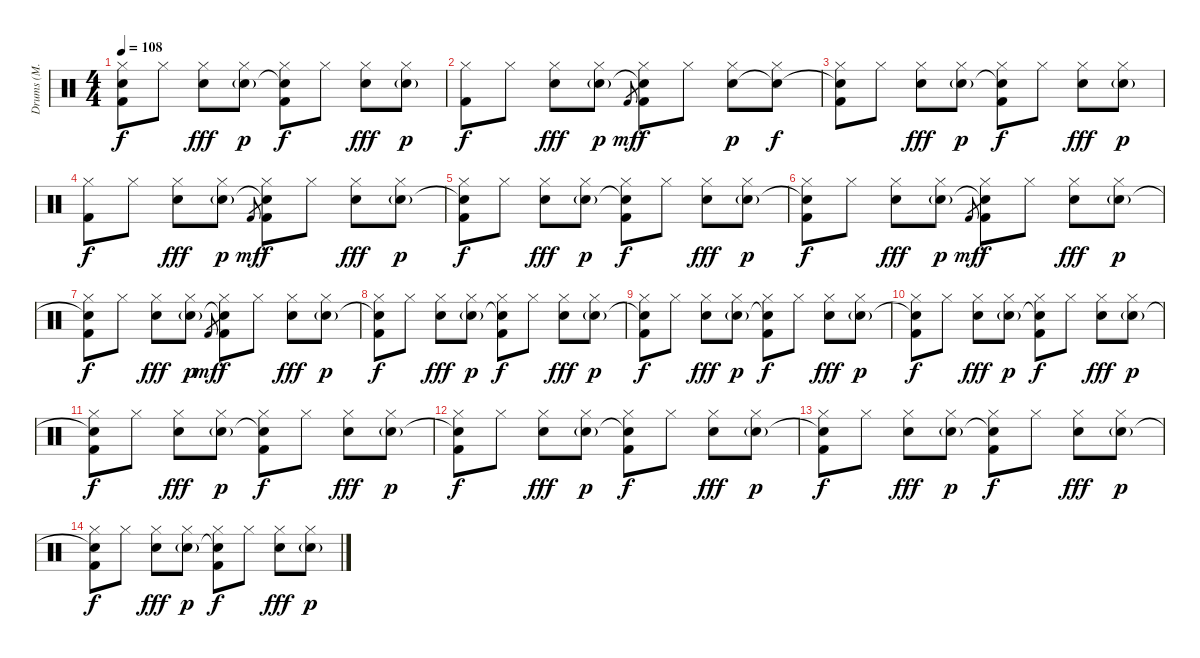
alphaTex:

\track ("Drums (M. Chambers)" "Drums (M. ") {instrument percussion}
\staff {score}
\articulation defaults
\ts (4 4)
\tempo 108
\clef neutral
\ks c
("Hi-Hat (closed)" "Snare (hit)"{t} "Kick (hit) 2").8{dy f} "Hi-Hat (closed)".8 ("Hi-Hat (closed)" "Electric Snare (hit)").8{dy fff} ("Hi-Hat (closed)" "Electric Snare (hit)"{g}).8{dy p} ("Hi-Hat (closed)" "Snare (hit)"{t} "Kick (hit) 2").8{dy f} "Hi-Hat (closed)".8 ("Hi-Hat (closed)" "Electric Snare (hit)").8{dy fff} ("Hi-Hat (closed)" "Electric Snare (hit)"{g}).8{dy p} |
("Hi-Hat (closed)" "Kick (hit) 2").8{dy f} "Hi-Hat (closed)".8 ("Hi-Hat (closed)" "Electric Snare (hit)").8{dy fff} ("Hi-Hat (closed)" "Electric Snare (hit)"{g}).8{dy p} "Kick (hit) 2".8{gr dy mf} ("Hi-Hat (closed)" "Snare (hit)"{t} "Kick (hit) 2").8{dy f} "Hi-Hat (closed)".8 ("Hi-Hat (closed)" "Electric Snare (hit)").8{dy p} ("Hi-Hat (closed)" "Electric Snare (hit)"{t}).8{dy f} |
("Hi-Hat (closed)" "Snare (hit)"{t} "Kick (hit) 2").8 "Hi-Hat (closed)".8 ("Hi-Hat (closed)" "Electric Snare (hit)").8{dy fff} ("Hi-Hat (closed)" "Electric Snare (hit)"{g}).8{dy p} ("Hi-Hat (closed)" "Snare (hit)"{t} "Kick (hit) 2").8{dy f} "Hi-Hat (closed)".8 ("Hi-Hat (closed)" "Electric Snare (hit)").8{dy fff} ("Hi-Hat (closed)" "Electric Snare (hit)"{g}).8{dy p} |
("Hi-Hat (closed)" "Kick (hit) 2").8{dy f} "Hi-Hat (closed)".8 ("Hi-Hat (closed)" "Electric Snare (hit)").8{dy fff} ("Hi-Hat (closed)" "Electric Snare (hit)"{g}).8{dy p} "Kick (hit) 2".8{gr dy mf} ("Hi-Hat (closed)" "Snare (hit)"{t} "Kick (hit) 2").8{dy f} "Hi-Hat (closed)".8 ("Hi-Hat (closed)" "Electric Snare (hit)").8{dy fff} ("Hi-Hat (closed)" "Electric Snare (hit)"{g}).8{dy p} |
("Hi-Hat (closed)" "Snare (hit)"{t} "Kick (hit) 2").8{dy f} "Hi-Hat (closed)".8 ("Hi-Hat (closed)" "Electric Snare (hit)").8{dy fff} ("Hi-Hat (closed)" "Electric Snare (hit)"{g}).8{dy p} ("Hi-Hat (closed)" "Snare (hit)"{t} "Kick (hit) 2").8{dy f} "Hi-Hat (closed)".8 ("Hi-Hat (closed)" "Electric Snare (hit)").8{dy fff} ("Hi-Hat (closed)" "Electric Snare (hit)"{g}).8{dy p} |
("Hi-Hat (closed)" "Snare (hit)"{t} "Kick (hit) 2").8{dy f} "Hi-Hat (closed)".8 ("Hi-Hat (closed)" "Electric Snare (hit)").8{dy fff} ("Hi-Hat (closed)" "Electric Snare (hit)"{g}).8{dy p} "Kick (hit) 2".8{gr dy mf} ("Hi-Hat (closed)" "Snare (hit)"{t} "Kick (hit) 2").8{dy f} "Hi-Hat (closed)".8 ("Hi-Hat (closed)" "Electric Snare (hit)").8{dy fff} ("Hi-Hat (closed)" "Electric Snare (hit)"{g}).8{dy p} |
("Hi-Hat (closed)" "Snare (hit)"{t} "Kick (hit) 2").8{dy f volume 5} "Hi-Hat (closed)".8 ("Hi-Hat (closed)" "Electric Snare (hit)").8{dy fff} ("Hi-Hat (closed)" "Electric Snare (hit)"{g}).8{dy p} "Kick (hit) 2".8{gr dy mf} ("Hi-Hat (closed)" "Snare (hit)"{t} "Kick (hit) 2").8{dy f} "Hi-Hat (closed)".8 ("Hi-Hat (closed)" "Electric Snare (hit)").8{dy fff} ("Hi-Hat (closed)" "Electric Snare (hit)"{g}).8{dy p} |
("Hi-Hat (closed)" "Snare (hit)"{t} "Kick (hit) 2").8{dy f} "Hi-Hat (closed)".8 ("Hi-Hat (closed)" "Electric Snare (hit)").8{dy fff} ("Hi-Hat (closed)" "Electric Snare (hit)"{g}).8{dy p} ("Hi-Hat (closed)" "Snare (hit)"{t} "Kick (hit) 2").8{dy f} "Hi-Hat (closed)".8 ("Hi-Hat (closed)" "Electric Snare (hit)").8{dy fff} ("Hi-Hat (closed)" "Electric Snare (hit)"{g}).8{dy p} |
("Hi-Hat (closed)" "Snare (hit)"{t} "Kick (hit) 2").8{dy f} "Hi-Hat (closed)".8 ("Hi-Hat (closed)" "Electric Snare (hit)").8{dy fff} ("Hi-Hat (closed)" "Electric Snare (hit)"{g}).8{dy p} ("Hi-Hat (closed)" "Snare (hit)"{t} "Kick (hit) 2").8{dy f} "Hi-Hat (closed)".8 ("Hi-Hat (closed)" "Electric Snare (hit)").8{dy fff} ("Hi-Hat (closed)" "Electric Snare (hit)"{g}).8{dy p} |
("Hi-Hat (closed)" "Snare (hit)"{t} "Kick (hit) 2").8{dy f} "Hi-Hat (closed)".8 ("Hi-Hat (closed)" "Electric Snare (hit)").8{dy fff} ("Hi-Hat (closed)" "Electric Snare (hit)"{g}).8{dy p} ("Hi-Hat (closed)" "Snare (hit)"{t} "Kick (hit) 2").8{dy f} "Hi-Hat (closed)".8 ("Hi-Hat (closed)" "Electric Snare (hit)").8{dy fff} ("Hi-Hat (closed)" "Electric Snare (hit)"{g}).8{dy p} |
("Hi-Hat (closed)" "Snare (hit)"{t} "Kick (hit) 2").8{dy f volume 0} "Hi-Hat (closed)".8 ("Hi-Hat (closed)" "Electric Snare (hit)").8{dy fff} ("Hi-Hat (closed)" "Electric Snare (hit)"{g}).8{dy p} ("Hi-Hat (closed)" "Snare (hit)"{t} "Kick (hit) 2").8{dy f} "Hi-Hat (closed)".8 ("Hi-Hat (closed)" "Electric Snare (hit)").8{dy fff} ("Hi-Hat (closed)" "Electric Snare (hit)"{g}).8{dy p} |
("Hi-Hat (closed)" "Snare (hit)"{t} "Kick (hit) 2").8{dy f} "Hi-Hat (closed)".8 ("Hi-Hat (closed)" "Electric Snare (hit)").8{dy fff} ("Hi-Hat (closed)" "Electric Snare (hit)"{g}).8{dy p} ("Hi-Hat (closed)" "Snare (hit)"{t} "Kick (hit) 2").8{dy f} "Hi-Hat (closed)".8 ("Hi-Hat (closed)" "Electric Snare (hit)").8{dy fff} ("Hi-Hat (closed)" "Electric Snare (hit)"{g}).8{dy p} |
("Hi-Hat (closed)" "Snare (hit)"{t} "Kick (hit) 2").8{dy f} "Hi-Hat (closed)".8 ("Hi-Hat (closed)" "Electric Snare (hit)").8{dy fff} ("Hi-Hat (closed)" "Electric Snare (hit)"{g}).8{dy p} ("Hi-Hat (closed)" "Snare (hit)"{t} "Kick (hit) 2").8{dy f} "Hi-Hat (closed)".8 ("Hi-Hat (closed)" "Electric Snare (hit)").8{dy fff} ("Hi-Hat (closed)" "Electric Snare (hit)"{g}).8{dy p} |
("Hi-Hat (closed)" "Snare (hit)"{t} "Kick (hit) 2").8{dy f} "Hi-Hat (closed)".8 ("Hi-Hat (closed)" "Electric Snare (hit)").8{dy fff} ("Hi-Hat (closed)" "Electric Snare (hit)"{g}).8{dy p} ("Hi-Hat (closed)" "Snare (hit)"{t} "Kick (hit) 2").8{dy f} "Hi-Hat (closed)".8 ("Hi-Hat (closed)" "Electric Snare (hit)").8{dy fff} ("Hi-Hat (closed)" "Electric Snare (hit)"{g}).8{dy p}
